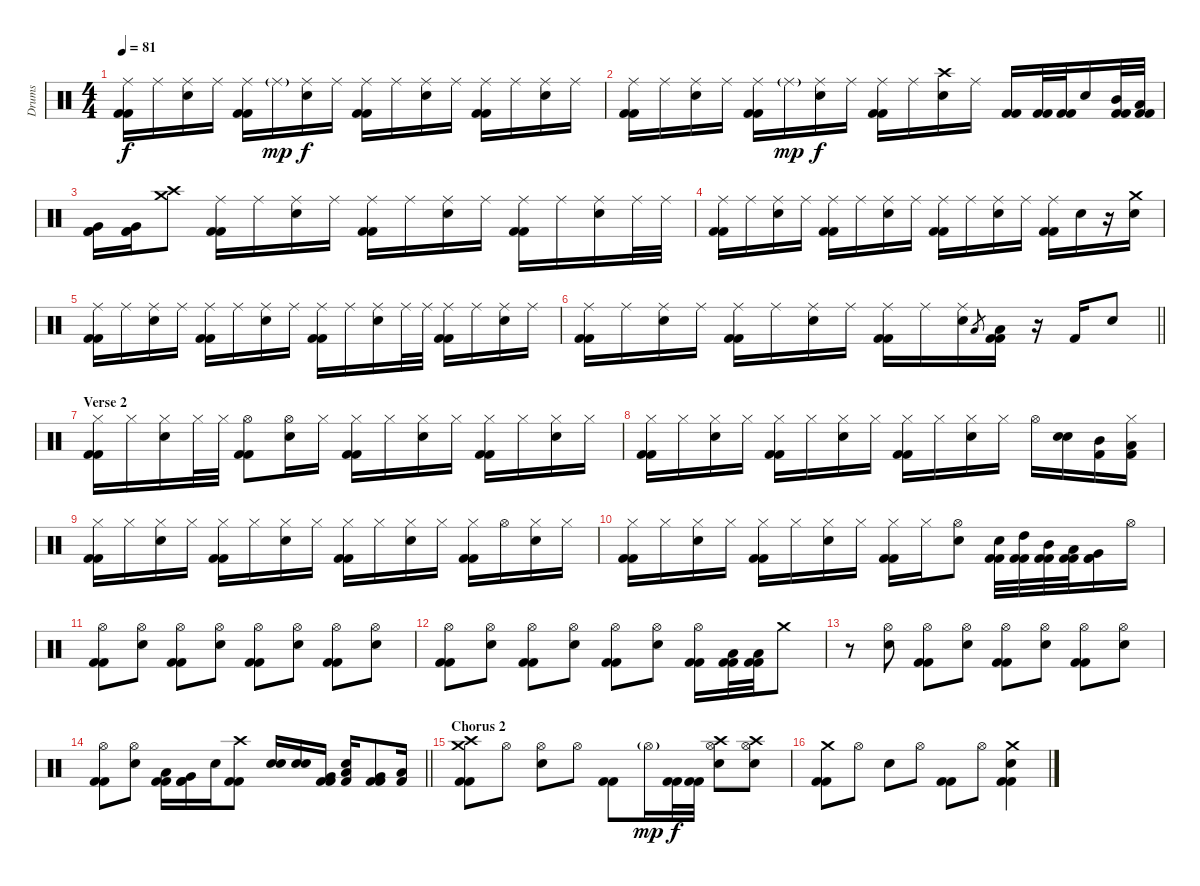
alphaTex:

\track ("Drums" "Drums") {instrument percussion}
\staff {score}
\articulation defaults
\ts (4 4)
\tempo 81
\clef neutral
\ks c
("Ride (middle)" "Kick (hit) 2" "Kick (hit) 2").16{dy f} "Ride (middle)".16 ("Ride (middle)" "Electric Snare (hit)").16 "Ride (middle)".16 ("Ride (middle)" "Kick (hit) 2" "Kick (hit) 2").16 "Ride (middle)"{g}.16{dy mp} ("Ride (middle)" "Electric Snare (hit)").16{dy f} "Ride (middle)".16 ("Ride (middle)" "Kick (hit) 2" "Kick (hit) 2").16 "Ride (middle)".16 ("Ride (middle)" "Electric Snare (hit)").16 "Ride (middle)".16 ("Ride (middle)" "Kick (hit) 2" "Kick (hit) 2").16 "Ride (middle)".16 ("Ride (middle)" "Electric Snare (hit)").16 "Ride (middle)".16 |
("Ride (middle)" "Kick (hit) 2" "Kick (hit) 2").16 "Ride (middle)".16 ("Ride (middle)" "Electric Snare (hit)").16 "Ride (middle)".16 ("Ride (middle)" "Kick (hit) 2" "Kick (hit) 2").16 "Ride (middle)"{g}.16{dy mp} ("Ride (middle)" "Electric Snare (hit)").16{dy f} "Ride (middle)".16 ("Ride (middle)" "Kick (hit) 2" "Kick (hit) 2").16 "Ride (middle)".16 ("Crash high (hit)" "Electric Snare (hit)").16 "Ride (middle)".16 ("Kick (hit) 2" "Kick (hit) 2").16 ("Kick (hit) 2" "Kick (hit) 2").32 ("Kick (hit) 2" "Kick (hit) 2").32 "Electric Snare (hit)".16 ("Mid Tom (hit)" "Kick (hit) 2" "Kick (hit) 2").32 ("Low Tom (hit)" "Kick (hit) 2" "Kick (hit) 2").32 |
("Very Low Tom (hit)" "Kick (hit) 2" "Kick (hit) 2").16 ("Very Low Tom (hit)" "Kick (hit) 2" "Kick (hit) 2").16 ("Crash medium (hit)" "Crash high (hit)").8 ("Ride (middle)" "Kick (hit) 2" "Kick (hit) 2").16 "Ride (middle)".16 ("Ride (middle)" "Electric Snare (hit)").16 "Ride (middle)".16 ("Ride (middle)" "Kick (hit) 2" "Kick (hit) 2").16 "Ride (middle)".16 ("Ride (middle)" "Electric Snare (hit)").16 "Ride (middle)".16 ("Ride (middle)" "Kick (hit) 2" "Kick (hit) 2").16 "Ride (middle)".16 ("Ride (middle)" "Electric Snare (hit)").16 "Ride (middle)".32 "Ride (middle)".32 |
("Ride (middle)" "Kick (hit) 2" "Kick (hit) 2").16 "Ride (middle)".16 ("Ride (middle)" "Electric Snare (hit)").16 "Ride (middle)".16 ("Ride (middle)" "Kick (hit) 2" "Kick (hit) 2").16 "Ride (middle)".16 ("Ride (middle)" "Electric Snare (hit)").16 "Ride (middle)".16 ("Ride (middle)" "Kick (hit) 2" "Kick (hit) 2").16 "Ride (middle)".16 ("Ride (middle)" "Electric Snare (hit)").16 "Ride (middle)".16 ("Ride (middle)" "Kick (hit) 2" "Kick (hit) 2").16 "Electric Snare (hit)".16 r.16 ("Crash medium (hit)" "Electric Snare (hit)").16 |
("Ride (middle)" "Kick (hit) 2" "Kick (hit) 2").16 "Ride (middle)".16 ("Ride (middle)" "Electric Snare (hit)").16 "Ride (middle)".16 ("Ride (middle)" "Kick (hit) 2" "Kick (hit) 2").16 "Ride (middle)".16 ("Ride (middle)" "Electric Snare (hit)").16 "Ride (middle)".16 ("Ride (middle)" "Kick (hit) 2" "Kick (hit) 2").16 "Ride (middle)".16 ("Ride (middle)" "Electric Snare (hit)").16 "Ride (middle)".32 "Ride (middle)".32 ("Ride (middle)" "Kick (hit) 2" "Kick (hit) 2").16 "Ride (middle)".16 ("Ride (middle)" "Electric Snare (hit)").16 "Ride (middle)".16 |
\barLineRight lightlight
("Ride (middle)" "Kick (hit) 2" "Kick (hit) 2").16 "Ride (middle)".16 ("Ride (middle)" "Electric Snare (hit)").16 "Ride (middle)".16 ("Ride (middle)" "Kick (hit) 2" "Kick (hit) 2").16 "Ride (middle)".16 ("Ride (middle)" "Electric Snare (hit)").16 "Ride (middle)".16 ("Ride (middle)" "Kick (hit) 2" "Kick (hit) 2").16 "Ride (middle)".16 ("Ride (middle)" "Electric Snare (hit)").16 "Low Tom (hit)".8{gr} ("Low Tom (hit)" "Kick (hit) 2" "Kick (hit) 2").16 r.16 "Kick (hit) 2".16 "Electric Snare (hit)".8 |
\section ("" "Verse 2")
("Hi-Hat (closed)" "Kick (hit) 2" "Kick (hit) 2").16 "Hi-Hat (closed)".16 ("Hi-Hat (closed)" "Electric Snare (hit)").16 "Hi-Hat (closed)".32 "Hi-Hat (closed)".32 ("Hi-Hat (open)" "Kick (hit) 2" "Kick (hit) 2").8 ("Hi-Hat (open)" "Electric Snare (hit)").16 "Hi-Hat (closed)".16 ("Hi-Hat (closed)" "Kick (hit) 2" "Kick (hit) 2").16 "Hi-Hat (closed)".16 ("Hi-Hat (closed)" "Electric Snare (hit)").16 "Hi-Hat (closed)".16 ("Hi-Hat (closed)" "Kick (hit) 2" "Kick (hit) 2").16 "Hi-Hat (closed)".16 ("Hi-Hat (closed)" "Electric Snare (hit)").16 "Hi-Hat (closed)".16 |
("Hi-Hat (closed)" "Kick (hit) 2" "Kick (hit) 2").16 "Hi-Hat (closed)".16 ("Hi-Hat (closed)" "Electric Snare (hit)").16 "Hi-Hat (closed)".16 ("Hi-Hat (closed)" "Kick (hit) 2" "Kick (hit) 2").16 "Hi-Hat (closed)".16 ("Hi-Hat (closed)" "Electric Snare (hit)").16 "Hi-Hat (closed)".16 ("Hi-Hat (closed)" "Kick (hit) 2" "Kick (hit) 2").16 "Hi-Hat (closed)".16 ("Hi-Hat (closed)" "Electric Snare (hit)").16 "Hi-Hat (closed)".16 "Hi-Hat (open)".16 ("Electric Snare (hit)" "Electric Snare (hit)").16 ("Mid Tom (hit)" "Kick (hit) 2").16 ("Low Tom (hit)" "Hi-Hat (closed)" "Kick (hit) 2").16 |
("Hi-Hat (closed)" "Kick (hit) 2" "Kick (hit) 2").16 "Hi-Hat (closed)".16 ("Hi-Hat (closed)" "Electric Snare (hit)").16 "Hi-Hat (closed)".16 ("Hi-Hat (closed)" "Kick (hit) 2" "Kick (hit) 2").16 "Hi-Hat (closed)".16 ("Hi-Hat (closed)" "Electric Snare (hit)").16 "Hi-Hat (closed)".16 ("Hi-Hat (closed)" "Kick (hit) 2" "Kick (hit) 2").16 "Hi-Hat (closed)".16 ("Hi-Hat (closed)" "Electric Snare (hit)").16 "Hi-Hat (closed)".16 ("Hi-Hat (closed)" "Kick (hit) 2" "Kick (hit) 2").16 "Hi-Hat (open)".16 ("Hi-Hat (closed)" "Electric Snare (hit)").16 "Hi-Hat (closed)".16 |
("Hi-Hat (closed)" "Kick (hit) 2" "Kick (hit) 2").16 "Hi-Hat (closed)".16 ("Hi-Hat (closed)" "Electric Snare (hit)").16 "Hi-Hat (closed)".16 ("Hi-Hat (closed)" "Kick (hit) 2" "Kick (hit) 2").16 "Hi-Hat (closed)".16 ("Hi-Hat (closed)" "Electric Snare (hit)").16 "Hi-Hat (closed)".16 ("Hi-Hat (closed)" "Kick (hit) 2" "Kick (hit) 2").16 "Hi-Hat (closed)".16 ("Hi-Hat (open)" "Electric Snare (hit)").8 ("Electric Snare (hit)" "Kick (hit) 2" "Kick (hit) 2").32 ("High Tom (hit)" "Kick (hit) 2" "Kick (hit) 2").32 ("Mid Tom (hit)" "Kick (hit) 2" "Kick (hit) 2").32 ("Low Tom (hit)" "Kick (hit) 2" "Kick (hit) 2").32 ("Very Low Tom (hit)" "Kick (hit) 2" "Kick (hit) 2").16 "Hi-Hat (open)".16 |
("Hi-Hat (open)" "Kick (hit) 2" "Kick (hit) 2").8 ("Hi-Hat (open)" "Electric Snare (hit)").8 ("Hi-Hat (open)" "Kick (hit) 2" "Kick (hit) 2").8 ("Hi-Hat (open)" "Electric Snare (hit)").8 ("Hi-Hat (open)" "Kick (hit) 2" "Kick (hit) 2").8 ("Hi-Hat (open)" "Electric Snare (hit)").8 ("Hi-Hat (open)" "Kick (hit) 2" "Kick (hit) 2").8 ("Hi-Hat (open)" "Electric Snare (hit)").8 |
("Hi-Hat (open)" "Kick (hit) 2" "Kick (hit) 2").8 ("Hi-Hat (open)" "Electric Snare (hit)").8 ("Hi-Hat (open)" "Kick (hit) 2" "Kick (hit) 2").8 ("Hi-Hat (open)" "Electric Snare (hit)").8 ("Hi-Hat (open)" "Kick (hit) 2" "Kick (hit) 2").8 ("Hi-Hat (open)" "Electric Snare (hit)").8 ("Hi-Hat (open)" "Kick (hit) 2" "Kick (hit) 2").16 ("Low Tom (hit)" "Kick (hit) 2" "Kick (hit) 2").32 ("Low Tom (hit)" "Kick (hit) 2" "Kick (hit) 2").32 "Crash medium (hit)".8 |
r.8 ("Hi-Hat (open)" "Electric Snare (hit)").8 ("Hi-Hat (open)" "Kick (hit) 2" "Kick (hit) 2").8 ("Hi-Hat (open)" "Electric Snare (hit)").8 ("Hi-Hat (open)" "Kick (hit) 2" "Kick (hit) 2").8 ("Hi-Hat (open)" "Electric Snare (hit)").8 ("Hi-Hat (open)" "Kick (hit) 2" "Kick (hit) 2").8 ("Hi-Hat (open)" "Electric Snare (hit)").8 |
\barLineRight lightlight
("Hi-Hat (open)" "Kick (hit) 2" "Kick (hit) 2").8 ("Hi-Hat (open)" "Electric Snare (hit)").8 ("Low Tom (hit)" "Kick (hit) 2" "Kick (hit) 2").16 ("Very Low Tom (hit)" "Kick (hit) 2" "Kick (hit) 2").16 "Electric Snare (hit)".16 ("Crash high (hit)" "Kick (hit) 2" "Kick (hit) 2").8 ("Electric Snare (hit)" "Electric Snare (hit)").16 ("Electric Snare (hit)" "Electric Snare (hit)").16 ("Very Low Tom (hit)" "Kick (hit) 2" "Kick (hit) 2").16 ("Low Tom (hit)" "Snare (hit)" "Kick (hit) 2").16 ("Very Low Tom (hit)" "Kick (hit) 2" "Kick (hit) 2").8 ("Low Floor Tom (hit)" "Kick (hit) 2").16 |
\section ("" "Chorus 2")
("Crash medium (hit)" "Crash high (hit)" "Kick (hit) 2" "Kick (hit) 2").8 "Hi-Hat (open)".8 ("Hi-Hat (open)" "Electric Snare (hit)").8 "Hi-Hat (open)".8 ("Kick (hit) 2" "Kick (hit) 2").8 "Hi-Hat (open)"{g}.16{dy mp} ("Kick (hit) 2" "Kick (hit) 2").32{dy f} ("Kick (hit) 2" "Kick (hit) 2").32 ("Crash high (hit)" "Hi-Hat (open)" "Electric Snare (hit)").8 ("Crash high (hit)" "Hi-Hat (open)" "Electric Snare (hit)").8 |
("Crash medium (hit)" "Kick (hit) 2" "Kick (hit) 2").8 "Hi-Hat (open)".8 "Electric Snare (hit)".8 "Hi-Hat (open)".8 ("Kick (hit) 2" "Kick (hit) 2").8 "Hi-Hat (open)".8 ("Crash medium (hit)" "Electric Snare (hit)" "Kick (hit) 2" "Kick (hit) 2").4
